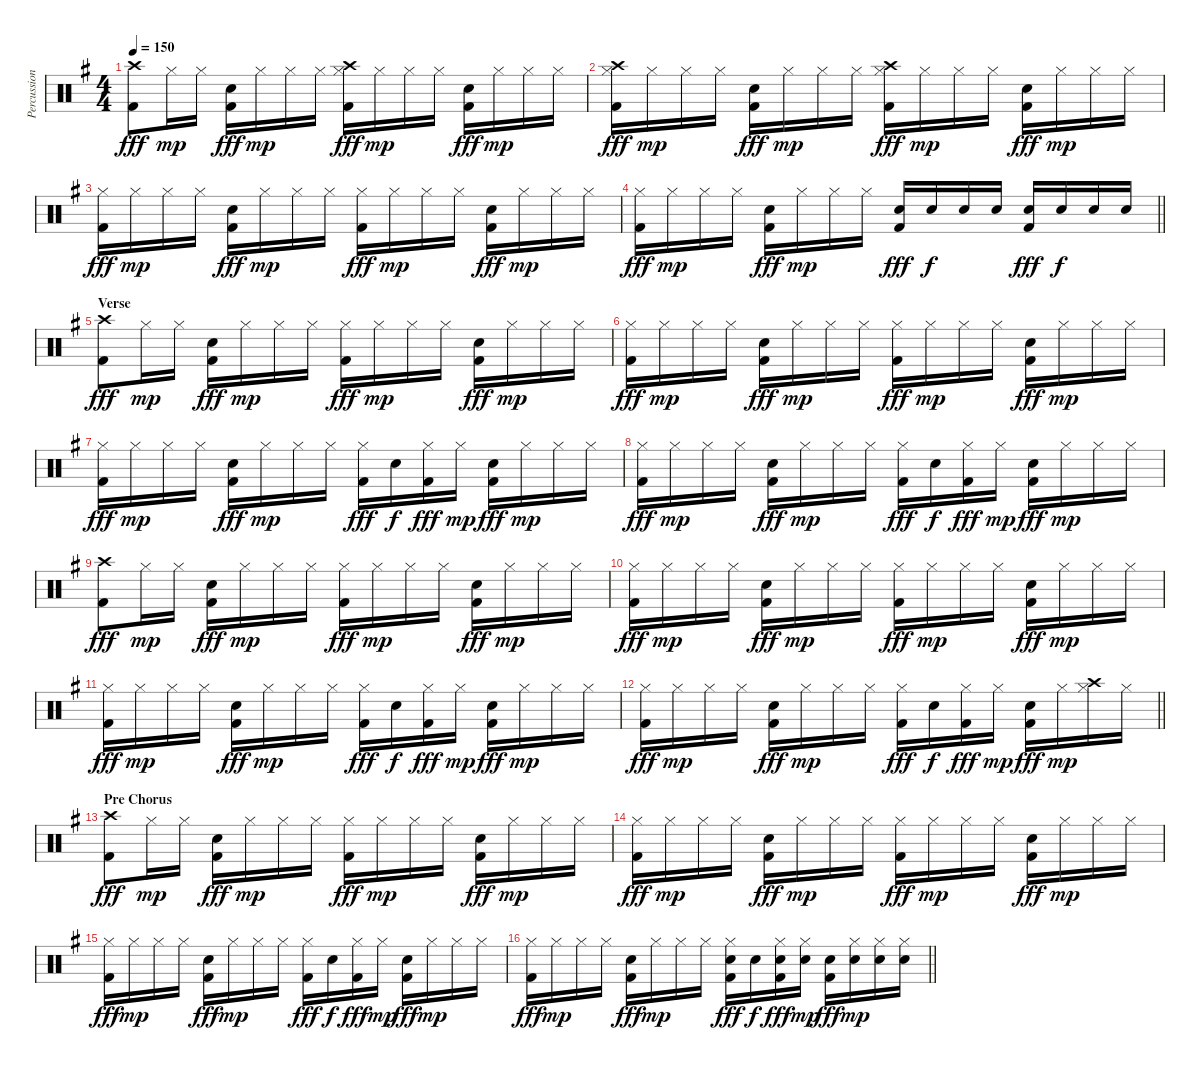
\track ("Percussion" "Percussion") {instrument percussion}
\staff {score}
\articulation defaults
\ts (4 4)
\tempo 150
\clef neutral
\ks eminor
("Crash high (hit)" "Kick (hit) 2").8{dy fff} "Hi-Hat (closed)".16{dy mp} "Hi-Hat (closed)".16 ("Electric Snare (hit)" "Kick (hit) 2").16{dy fff} "Hi-Hat (closed)".16{dy mp} "Hi-Hat (closed)".16 "Hi-Hat (closed)".16 ("Hi-Hat (closed)" "Crash high (hit)" "Kick (hit) 2").16{dy fff} "Hi-Hat (closed)".16{dy mp} "Hi-Hat (closed)".16 "Hi-Hat (closed)".16 ("Electric Snare (hit)" "Kick (hit) 2").16{dy fff} "Hi-Hat (closed)".16{dy mp} "Hi-Hat (closed)".16 "Hi-Hat (closed)".16 |
("Hi-Hat (closed)" "Crash high (hit)" "Kick (hit) 2").16{dy fff} "Hi-Hat (closed)".16{dy mp} "Hi-Hat (closed)".16 "Hi-Hat (closed)".16 ("Electric Snare (hit)" "Kick (hit) 2").16{dy fff} "Hi-Hat (closed)".16{dy mp} "Hi-Hat (closed)".16 "Hi-Hat (closed)".16 ("Hi-Hat (closed)" "Crash high (hit)" "Kick (hit) 2").16{dy fff} "Hi-Hat (closed)".16{dy mp} "Hi-Hat (closed)".16 "Hi-Hat (closed)".16 ("Electric Snare (hit)" "Kick (hit) 2").16{dy fff} "Hi-Hat (closed)".16{dy mp} "Hi-Hat (closed)".16 "Hi-Hat (closed)".16 |
("Hi-Hat (closed)" "Kick (hit) 2").16{dy fff} "Hi-Hat (closed)".16{dy mp} "Hi-Hat (closed)".16 "Hi-Hat (closed)".16 ("Electric Snare (hit)" "Kick (hit) 2").16{dy fff} "Hi-Hat (closed)".16{dy mp} "Hi-Hat (closed)".16 "Hi-Hat (closed)".16 ("Hi-Hat (closed)" "Kick (hit) 2").16{dy fff} "Hi-Hat (closed)".16{dy mp} "Hi-Hat (closed)".16 "Hi-Hat (closed)".16 ("Electric Snare (hit)" "Kick (hit) 2").16{dy fff} "Hi-Hat (closed)".16{dy mp} "Hi-Hat (closed)".16 "Hi-Hat (closed)".16 |
\barLineRight lightlight
("Hi-Hat (closed)" "Kick (hit) 2").16{dy fff} "Hi-Hat (closed)".16{dy mp} "Hi-Hat (closed)".16 "Hi-Hat (closed)".16 ("Electric Snare (hit)" "Kick (hit) 2").16{dy fff} "Hi-Hat (closed)".16{dy mp} "Hi-Hat (closed)".16 "Hi-Hat (closed)".16 ("Electric Snare (hit)" "Kick (hit) 2").16{dy fff} "Electric Snare (hit)".16{dy f} "Electric Snare (hit)".16 "Electric Snare (hit)".16 ("Electric Snare (hit)" "Kick (hit) 2").16{dy fff} "Electric Snare (hit)".16{dy f} "Electric Snare (hit)".16 "Electric Snare (hit)".16 |
\section ("" "Verse")
("Crash high (hit)" "Kick (hit) 2").8{dy fff} "Hi-Hat (closed)".16{dy mp} "Hi-Hat (closed)".16 ("Electric Snare (hit)" "Kick (hit) 2").16{dy fff} "Hi-Hat (closed)".16{dy mp} "Hi-Hat (closed)".16 "Hi-Hat (closed)".16 ("Hi-Hat (closed)" "Kick (hit) 2").16{dy fff} "Hi-Hat (closed)".16{dy mp} "Hi-Hat (closed)".16 "Hi-Hat (closed)".16 ("Electric Snare (hit)" "Kick (hit) 2").16{dy fff} "Hi-Hat (closed)".16{dy mp} "Hi-Hat (closed)".16 "Hi-Hat (closed)".16 |
("Hi-Hat (closed)" "Kick (hit) 2").16{dy fff} "Hi-Hat (closed)".16{dy mp} "Hi-Hat (closed)".16 "Hi-Hat (closed)".16 ("Electric Snare (hit)" "Kick (hit) 2").16{dy fff} "Hi-Hat (closed)".16{dy mp} "Hi-Hat (closed)".16 "Hi-Hat (closed)".16 ("Hi-Hat (closed)" "Kick (hit) 2").16{dy fff} "Hi-Hat (closed)".16{dy mp} "Hi-Hat (closed)".16 "Hi-Hat (closed)".16 ("Electric Snare (hit)" "Kick (hit) 2").16{dy fff} "Hi-Hat (closed)".16{dy mp} "Hi-Hat (closed)".16 "Hi-Hat (closed)".16 |
("Hi-Hat (closed)" "Kick (hit) 2").16{dy fff} "Hi-Hat (closed)".16{dy mp} "Hi-Hat (closed)".16 "Hi-Hat (closed)".16 ("Electric Snare (hit)" "Kick (hit) 2").16{dy fff} "Hi-Hat (closed)".16{dy mp} "Hi-Hat (closed)".16 "Hi-Hat (closed)".16 ("Hi-Hat (closed)" "Kick (hit) 2").16{dy fff} "Electric Snare (hit)".16{dy f} ("Hi-Hat (closed)" "Kick (hit) 2").16{dy fff} "Hi-Hat (closed)".16{dy mp} ("Electric Snare (hit)" "Kick (hit) 2").16{dy fff} "Hi-Hat (closed)".16{dy mp} "Hi-Hat (closed)".16 "Hi-Hat (closed)".16 |
("Hi-Hat (closed)" "Kick (hit) 2").16{dy fff} "Hi-Hat (closed)".16{dy mp} "Hi-Hat (closed)".16 "Hi-Hat (closed)".16 ("Electric Snare (hit)" "Kick (hit) 2").16{dy fff} "Hi-Hat (closed)".16{dy mp} "Hi-Hat (closed)".16 "Hi-Hat (closed)".16 ("Hi-Hat (closed)" "Kick (hit) 2").16{dy fff} "Electric Snare (hit)".16{dy f} ("Hi-Hat (closed)" "Kick (hit) 2").16{dy fff} "Hi-Hat (closed)".16{dy mp} ("Electric Snare (hit)" "Kick (hit) 2").16{dy fff} "Hi-Hat (closed)".16{dy mp} "Hi-Hat (closed)".16 "Hi-Hat (closed)".16 |
("Crash high (hit)" "Kick (hit) 2").8{dy fff} "Hi-Hat (closed)".16{dy mp} "Hi-Hat (closed)".16 ("Electric Snare (hit)" "Kick (hit) 2").16{dy fff} "Hi-Hat (closed)".16{dy mp} "Hi-Hat (closed)".16 "Hi-Hat (closed)".16 ("Hi-Hat (closed)" "Kick (hit) 2").16{dy fff} "Hi-Hat (closed)".16{dy mp} "Hi-Hat (closed)".16 "Hi-Hat (closed)".16 ("Electric Snare (hit)" "Kick (hit) 2").16{dy fff} "Hi-Hat (closed)".16{dy mp} "Hi-Hat (closed)".16 "Hi-Hat (closed)".16 |
("Hi-Hat (closed)" "Kick (hit) 2").16{dy fff} "Hi-Hat (closed)".16{dy mp} "Hi-Hat (closed)".16 "Hi-Hat (closed)".16 ("Electric Snare (hit)" "Kick (hit) 2").16{dy fff} "Hi-Hat (closed)".16{dy mp} "Hi-Hat (closed)".16 "Hi-Hat (closed)".16 ("Hi-Hat (closed)" "Kick (hit) 2").16{dy fff} "Hi-Hat (closed)".16{dy mp} "Hi-Hat (closed)".16 "Hi-Hat (closed)".16 ("Electric Snare (hit)" "Kick (hit) 2").16{dy fff} "Hi-Hat (closed)".16{dy mp} "Hi-Hat (closed)".16 "Hi-Hat (closed)".16 |
("Hi-Hat (closed)" "Kick (hit) 2").16{dy fff} "Hi-Hat (closed)".16{dy mp} "Hi-Hat (closed)".16 "Hi-Hat (closed)".16 ("Electric Snare (hit)" "Kick (hit) 2").16{dy fff} "Hi-Hat (closed)".16{dy mp} "Hi-Hat (closed)".16 "Hi-Hat (closed)".16 ("Hi-Hat (closed)" "Kick (hit) 2").16{dy fff} "Electric Snare (hit)".16{dy f} ("Hi-Hat (closed)" "Kick (hit) 2").16{dy fff} "Hi-Hat (closed)".16{dy mp} ("Electric Snare (hit)" "Kick (hit) 2").16{dy fff} "Hi-Hat (closed)".16{dy mp} "Hi-Hat (closed)".16 "Hi-Hat (closed)".16 |
\barLineRight lightlight
("Hi-Hat (closed)" "Kick (hit) 2").16{dy fff} "Hi-Hat (closed)".16{dy mp} "Hi-Hat (closed)".16 "Hi-Hat (closed)".16 ("Electric Snare (hit)" "Kick (hit) 2").16{dy fff} "Hi-Hat (closed)".16{dy mp} "Hi-Hat (closed)".16 "Hi-Hat (closed)".16 ("Hi-Hat (closed)" "Kick (hit) 2").16{dy fff} "Electric Snare (hit)".16{dy f} ("Hi-Hat (closed)" "Kick (hit) 2").16{dy fff} "Hi-Hat (closed)".16{dy mp} ("Electric Snare (hit)" "Kick (hit) 2").16{dy fff} "Hi-Hat (closed)".16{dy mp} ("Hi-Hat (closed)" "Crash high (hit)").16 "Hi-Hat (closed)".16 |
\section ("" "Pre Chorus")
("Crash high (hit)" "Kick (hit) 2").8{dy fff} "Hi-Hat (closed)".16{dy mp} "Hi-Hat (closed)".16 ("Electric Snare (hit)" "Kick (hit) 2").16{dy fff} "Hi-Hat (closed)".16{dy mp} "Hi-Hat (closed)".16 "Hi-Hat (closed)".16 ("Hi-Hat (closed)" "Kick (hit) 2").16{dy fff} "Hi-Hat (closed)".16{dy mp} "Hi-Hat (closed)".16 "Hi-Hat (closed)".16 ("Electric Snare (hit)" "Kick (hit) 2").16{dy fff} "Hi-Hat (closed)".16{dy mp} "Hi-Hat (closed)".16 "Hi-Hat (closed)".16 |
("Hi-Hat (closed)" "Kick (hit) 2").16{dy fff} "Hi-Hat (closed)".16{dy mp} "Hi-Hat (closed)".16 "Hi-Hat (closed)".16 ("Electric Snare (hit)" "Kick (hit) 2").16{dy fff} "Hi-Hat (closed)".16{dy mp} "Hi-Hat (closed)".16 "Hi-Hat (closed)".16 ("Hi-Hat (closed)" "Kick (hit) 2").16{dy fff} "Hi-Hat (closed)".16{dy mp} "Hi-Hat (closed)".16 "Hi-Hat (closed)".16 ("Electric Snare (hit)" "Kick (hit) 2").16{dy fff} "Hi-Hat (closed)".16{dy mp} "Hi-Hat (closed)".16 "Hi-Hat (closed)".16 |
("Hi-Hat (closed)" "Kick (hit) 2").16{dy fff} "Hi-Hat (closed)".16{dy mp} "Hi-Hat (closed)".16 "Hi-Hat (closed)".16 ("Electric Snare (hit)" "Kick (hit) 2").16{dy fff} "Hi-Hat (closed)".16{dy mp} "Hi-Hat (closed)".16 "Hi-Hat (closed)".16 ("Hi-Hat (closed)" "Kick (hit) 2").16{dy fff} "Electric Snare (hit)".16{dy f} ("Hi-Hat (closed)" "Kick (hit) 2").16{dy fff} "Hi-Hat (closed)".16{dy mp} ("Electric Snare (hit)" "Kick (hit) 2").16{dy fff} "Hi-Hat (closed)".16{dy mp} "Hi-Hat (closed)".16 "Hi-Hat (closed)".16 |
\barLineRight lightlight
("Hi-Hat (closed)" "Kick (hit) 2").16{dy fff} "Hi-Hat (closed)".16{dy mp} "Hi-Hat (closed)".16 "Hi-Hat (closed)".16 ("Electric Snare (hit)" "Kick (hit) 2").16{dy fff} "Hi-Hat (closed)".16{dy mp} "Hi-Hat (closed)".16 "Hi-Hat (closed)".16 ("Hi-Hat (closed)" "Electric Snare (hit)" "Kick (hit) 2").16{dy fff} "Electric Snare (hit)".16{dy f} ("Hi-Hat (closed)" "Electric Snare (hit)" "Kick (hit) 2").16{dy fff} ("Hi-Hat (closed)" "Electric Snare (hit)").16{dy mp} ("Electric Snare (hit)" "Kick (hit) 2").16{dy fff} ("Hi-Hat (closed)" "Electric Snare (hit)").16{dy mp} ("Hi-Hat (closed)" "Electric Snare (hit)").16 ("Hi-Hat (closed)" "Electric Snare (hit)").16
